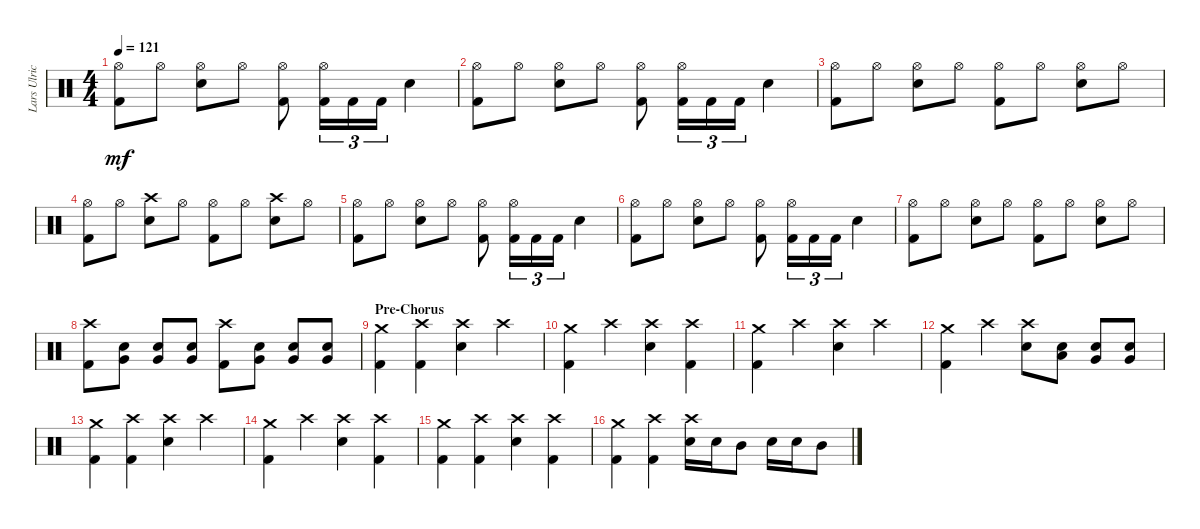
\track ("Lars Ulrich" "Lars Ulric") {instrument percussion}
\staff {score}
\articulation defaults
\ts (4 4)
\tempo 121
\clef neutral
\ks c
("Hi-Hat (open)" "Kick (hit) 2").8{dy mf} "Hi-Hat (open)".8 ("Hi-Hat (open)" "Snare (hit) 2").8 "Hi-Hat (open)".8 ("Hi-Hat (open)" "Kick (hit) 2").8 ("Hi-Hat (open)" "Kick (hit) 2").16{tu (3 2)} "Kick (hit) 2".16{tu (3 2)} "Kick (hit) 2".16{tu (3 2)} "Snare (hit) 2".4 |
("Hi-Hat (open)" "Kick (hit) 2").8 "Hi-Hat (open)".8 ("Hi-Hat (open)" "Snare (hit) 2").8 "Hi-Hat (open)".8 ("Hi-Hat (open)" "Kick (hit) 2").8 ("Hi-Hat (open)" "Kick (hit) 2").16{tu (3 2)} "Kick (hit) 2".16{tu (3 2)} "Kick (hit) 2".16{tu (3 2)} "Snare (hit) 2".4 |
("Hi-Hat (open)" "Kick (hit) 2").8 "Hi-Hat (open)".8 ("Hi-Hat (open)" "Snare (hit) 2").8 "Hi-Hat (open)".8 ("Hi-Hat (open)" "Kick (hit) 2").8 "Hi-Hat (open)".8 ("Hi-Hat (open)" "Snare (hit) 2").8 "Hi-Hat (open)".8 |
("Hi-Hat (open)" "Kick (hit) 2").8 "Hi-Hat (open)".8 ("Snare (hit) 2" "Crash high (hit)").8 "Hi-Hat (open)".8 ("Hi-Hat (open)" "Kick (hit) 2").8 "Hi-Hat (open)".8 ("Snare (hit) 2" "Crash high (hit)").8 "Hi-Hat (open)".8 |
("Hi-Hat (open)" "Kick (hit) 2").8 "Hi-Hat (open)".8 ("Hi-Hat (open)" "Snare (hit) 2").8 "Hi-Hat (open)".8 ("Hi-Hat (open)" "Kick (hit) 2").8 ("Hi-Hat (open)" "Kick (hit) 2").16{tu (3 2)} "Kick (hit) 2".16{tu (3 2)} "Kick (hit) 2".16{tu (3 2)} "Snare (hit) 2".4 |
("Hi-Hat (open)" "Kick (hit) 2").8 "Hi-Hat (open)".8 ("Hi-Hat (open)" "Snare (hit) 2").8 "Hi-Hat (open)".8 ("Hi-Hat (open)" "Kick (hit) 2").8 ("Hi-Hat (open)" "Kick (hit) 2").16{tu (3 2)} "Kick (hit) 2".16{tu (3 2)} "Kick (hit) 2".16{tu (3 2)} "Snare (hit) 2".4 |
("Hi-Hat (open)" "Kick (hit) 2").8 "Hi-Hat (open)".8 ("Hi-Hat (open)" "Snare (hit) 2").8 "Hi-Hat (open)".8 ("Hi-Hat (open)" "Kick (hit) 2").8 "Hi-Hat (open)".8 ("Hi-Hat (open)" "Snare (hit) 2").8 "Hi-Hat (open)".8 |
("Crash high (hit)" "Kick (hit) 2").8 ("Snare (hit) 2" "Very Low Tom (hit)").8 ("Snare (hit) 2" "Very Low Tom (hit)").8 ("Snare (hit) 2" "Very Low Tom (hit)").8 ("Crash high (hit)" "Kick (hit) 2").8 ("Snare (hit) 2" "Very Low Tom (hit)").8 ("Snare (hit) 2" "Very Low Tom (hit)").8 ("Snare (hit) 2" "Very Low Tom (hit)").8 |
\section ("" "Pre-Chorus")
("Crash medium (hit)" "Kick (hit) 2").4 ("Crash high (hit)" "Kick (hit) 2").4 ("Crash high (hit)" "Snare (hit) 2").4 "Crash high (hit)".4 |
("Crash medium (hit)" "Kick (hit) 2").4 "Crash high (hit)".4 ("Crash high (hit)" "Snare (hit) 2").4 ("Crash high (hit)" "Kick (hit) 2").4 |
("Crash medium (hit)" "Kick (hit) 2").4 "Crash high (hit)".4 ("Crash high (hit)" "Snare (hit) 2").4 "Crash high (hit)".4 |
("Crash medium (hit)" "Kick (hit) 2").4 "Crash high (hit)".4 ("Crash high (hit)" "Snare (hit) 2").8 ("Snare (hit) 2" "Low Tom (hit)").8 ("Snare (hit) 2" "Very Low Tom (hit)").8 ("Snare (hit) 2" "Very Low Tom (hit)").8 |
("Crash medium (hit)" "Kick (hit) 2").4 ("Crash high (hit)" "Kick (hit) 2").4 ("Crash high (hit)" "Snare (hit) 2").4 "Crash high (hit)".4 |
("Crash medium (hit)" "Kick (hit) 2").4 "Crash high (hit)".4 ("Crash high (hit)" "Snare (hit) 2").4 ("Crash high (hit)" "Kick (hit) 2").4 |
("Crash medium (hit)" "Kick (hit) 2").4 ("Crash high (hit)" "Kick (hit) 2").4 ("Crash high (hit)" "Snare (hit) 2").4 ("Crash high (hit)" "Kick (hit) 2").4 |
("Crash medium (hit)" "Kick (hit) 2").4 ("Crash high (hit)" "Kick (hit) 2").4 ("Crash high (hit)" "Snare (hit) 2").16 "Snare (hit) 2".16 "Mid Tom (hit)".8 "Snare (hit) 2".16 "Snare (hit) 2".16 "Mid Tom (hit)".8
